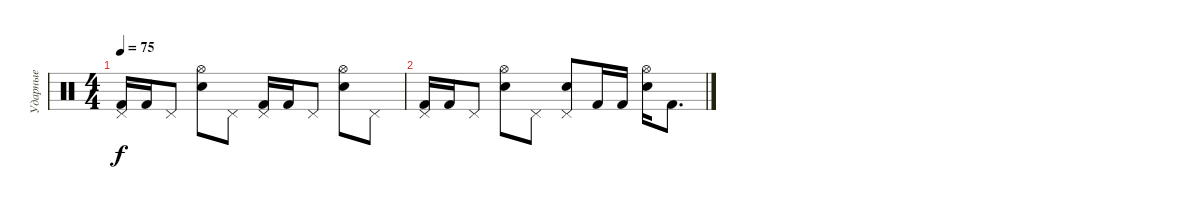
\track ("Ударные" "Ударные") {instrument percussion}
\staff {score}
\articulation defaults
\ts (4 4)
\tempo 75
\clef neutral
\ks c
("Pedal Hi-Hat (hit)" "Kick (hit) 2").16{dy f} "Kick (hit) 2".16 "Pedal Hi-Hat (hit)".8 ("Hi-Hat (open)" "Electric Snare (hit)").8 "Pedal Hi-Hat (hit)".8 ("Pedal Hi-Hat (hit)" "Kick (hit) 2").16 "Kick (hit) 2".16 "Pedal Hi-Hat (hit)".8 ("Hi-Hat (open)" "Electric Snare (hit)").8 "Pedal Hi-Hat (hit)".8 |
("Pedal Hi-Hat (hit)" "Kick (hit) 2").16 "Kick (hit) 2".16 "Pedal Hi-Hat (hit)".8 ("Hi-Hat (open)" "Electric Snare (hit)").8 "Pedal Hi-Hat (hit)".8 ("Pedal Hi-Hat (hit)" "Electric Snare (hit)").8 "Kick (hit) 2".16 "Kick (hit) 2".16 ("Hi-Hat (open)" "Electric Snare (hit)").16 "Kick (hit) 2".8{d}
